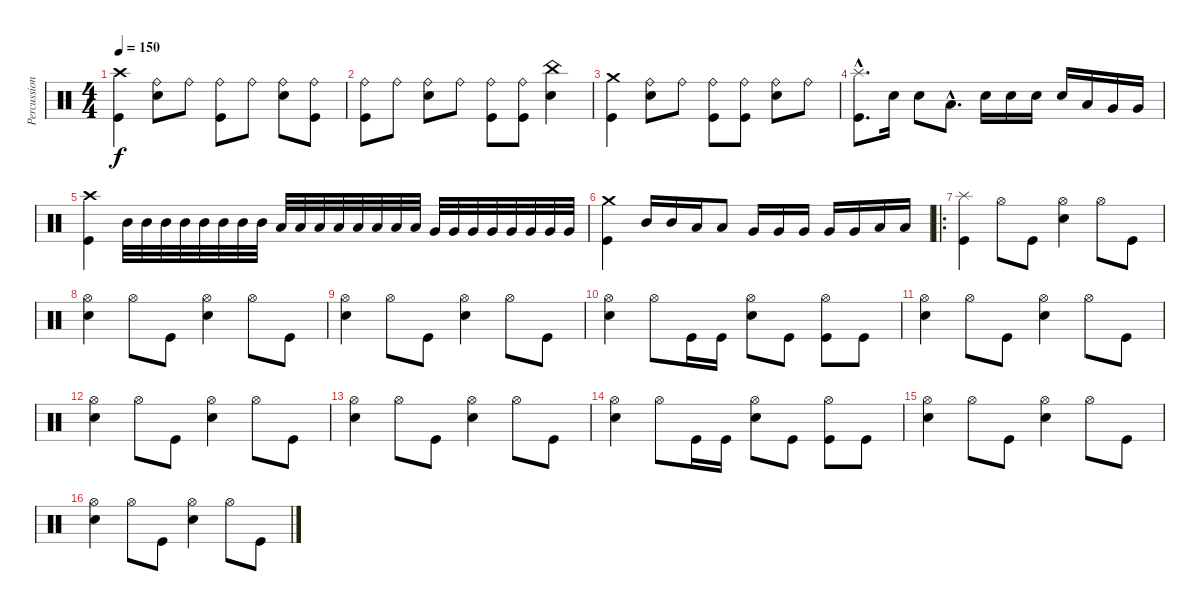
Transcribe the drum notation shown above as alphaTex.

\track ("Percussions" "Percussion") {instrument percussion}
\staff {score}
\articulation defaults
\ts (4 4)
\tempo 150
\clef neutral
\ks c
("Kick (hit)" "Crash high (hit)").4{dy f} ("Electric Snare (hit)" "Ride (bell)").8 "Ride (bell)".8 ("Kick (hit)" "Ride (bell)").8 "Ride (bell)".8 ("Electric Snare (hit)" "Ride (bell)").8 ("Kick (hit)" "Ride (bell)").8 |
("Kick (hit)" "Ride (bell)").8 "Ride (bell)".8 ("Electric Snare (hit)" "Ride (bell)").8 "Ride (bell)".8 ("Kick (hit)" "Ride (bell)").8 ("Kick (hit)" "Ride (bell)").8 ("Electric Snare (hit)" "China (hit)").4 |
("Kick (hit)" "Crash medium (hit)").4 ("Electric Snare (hit)" "Ride (bell)").8 "Ride (bell)".8 ("Kick (hit)" "Ride (bell)").8 ("Kick (hit)" "Ride (bell)").8 ("Electric Snare (hit)" "Ride (bell)").8 "Ride (bell)".8 |
("Kick (hit)"{hac} "Splash (hit)"{hac}).8{d} "Electric Snare (hit)".16 "Electric Snare (hit)".8 "Low Tom (hit)"{hac}.8{d} "Electric Snare (hit)".16 "Electric Snare (hit)".16 "Electric Snare (hit)".16 "Electric Snare (hit)".16 "Low Tom (hit)".16 "Very Low Tom (hit)".16 "Very Low Tom (hit)".16 |
("Kick (hit)" "Crash high (hit)").4 "Mid Tom (hit)".32 "Mid Tom (hit)".32 "Mid Tom (hit)".32 "Mid Tom (hit)".32 "Mid Tom (hit)".32 "Mid Tom (hit)".32 "Mid Tom (hit)".32 "Mid Tom (hit)".32 "Low Tom (hit)".32 "Low Tom (hit)".32 "Low Tom (hit)".32 "Low Tom (hit)".32 "Low Tom (hit)".32 "Low Tom (hit)".32 "Low Tom (hit)".32 "Low Tom (hit)".32 "Very Low Tom (hit)".32 "Very Low Tom (hit)".32 "Very Low Tom (hit)".32 "Very Low Tom (hit)".32 "Very Low Tom (hit)".32 "Very Low Tom (hit)".32 "Very Low Tom (hit)".32 "Very Low Tom (hit)".32 |
("Kick (hit)" "Crash medium (hit)").4 "Mid Tom (hit)".16 "Mid Tom (hit)".16 "Low Tom (hit)".16 "Low Tom (hit)".8 "Very Low Tom (hit)".16 "Very Low Tom (hit)".16 "Very Low Tom (hit)".16 "Very Low Tom (hit)".16 "Very Low Tom (hit)".16 "Low Floor Tom (hit)".16 "Low Floor Tom (hit)".16 |
\ro
("Kick (hit)" "Splash (hit)").4 "Hi-Hat (open)".8 "Kick (hit)".8 ("Electric Snare (hit)" "Hi-Hat (open)").4 "Hi-Hat (open)".8 "Kick (hit)".8 |
("Electric Snare (hit)" "Hi-Hat (open)").4 "Hi-Hat (open)".8 "Kick (hit)".8 ("Electric Snare (hit)" "Hi-Hat (open)").4 "Hi-Hat (open)".8 "Kick (hit)".8 |
("Electric Snare (hit)" "Hi-Hat (open)").4 "Hi-Hat (open)".8 "Kick (hit)".8 ("Electric Snare (hit)" "Hi-Hat (open)").4 "Hi-Hat (open)".8 "Kick (hit)".8 |
("Electric Snare (hit)" "Hi-Hat (open)").4 "Hi-Hat (open)".8 "Kick (hit)".16 "Kick (hit)".16 ("Electric Snare (hit)" "Hi-Hat (open)").8 "Kick (hit)".8 ("Kick (hit)" "Hi-Hat (open)").8 "Kick (hit)".8 |
("Electric Snare (hit)" "Hi-Hat (open)").4 "Hi-Hat (open)".8 "Kick (hit)".8 ("Electric Snare (hit)" "Hi-Hat (open)").4 "Hi-Hat (open)".8 "Kick (hit)".8 |
("Electric Snare (hit)" "Hi-Hat (open)").4 "Hi-Hat (open)".8 "Kick (hit)".8 ("Electric Snare (hit)" "Hi-Hat (open)").4 "Hi-Hat (open)".8 "Kick (hit)".8 |
("Electric Snare (hit)" "Hi-Hat (open)").4 "Hi-Hat (open)".8 "Kick (hit)".8 ("Electric Snare (hit)" "Hi-Hat (open)").4 "Hi-Hat (open)".8 "Kick (hit)".8 |
("Electric Snare (hit)" "Hi-Hat (open)").4 "Hi-Hat (open)".8 "Kick (hit)".16 "Kick (hit)".16 ("Electric Snare (hit)" "Hi-Hat (open)").8 "Kick (hit)".8 ("Kick (hit)" "Hi-Hat (open)").8 "Kick (hit)".8 |
("Electric Snare (hit)" "Hi-Hat (open)").4 "Hi-Hat (open)".8 "Kick (hit)".8 ("Electric Snare (hit)" "Hi-Hat (open)").4 "Hi-Hat (open)".8 "Kick (hit)".8 |
("Electric Snare (hit)" "Hi-Hat (open)").4 "Hi-Hat (open)".8 "Kick (hit)".8 ("Electric Snare (hit)" "Hi-Hat (open)").4 "Hi-Hat (open)".8 "Kick (hit)".8
